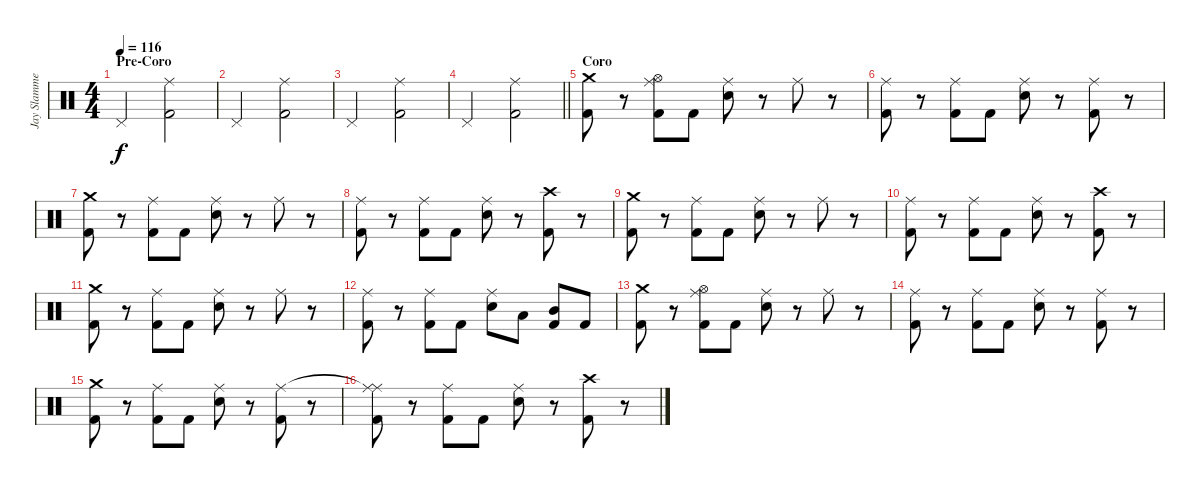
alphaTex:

\track ("Jay Slammer " "Jay Slamme") {instrument percussion}
\staff {score}
\articulation defaults
\ts (4 4)
\section ("" "Pre-Coro")
\tempo 116
\clef neutral
\ks c "Pedal Hi-Hat (hit)".2{dy f}
("Ride (middle)" "Kick (hit) 2").2 |
"Pedal Hi-Hat (hit)".2 ("Ride (middle)" "Kick (hit) 2").2 |
"Pedal Hi-Hat (hit)".2 ("Ride (middle)" "Kick (hit) 2").2 |
\barLineRight lightlight "Pedal Hi-Hat (hit)".2
("Ride (middle)" "Kick (hit) 2").2 |
\section ("" "Coro")
("Crash medium (hit)" "Kick (hit) 2").8 r.8 ("Hi-Hat (open)" "Ride (middle)" "Kick (hit) 2").8 "Kick (hit) 2".8 ("Ride (middle)" "Snare (hit) 2").8 r.8 "Ride (middle)".8 r.8 |
("Ride (middle)" "Kick (hit) 2").8 r.8 ("Ride (middle)" "Kick (hit) 2").8 "Kick (hit) 2".8 ("Ride (middle)" "Snare (hit) 2").8 r.8 ("Ride (middle)" "Kick (hit) 2").8 r.8 |
("Crash medium (hit)" "Kick (hit) 2").8 r.8 ("Ride (middle)" "Kick (hit) 2").8 "Kick (hit) 2".8 ("Ride (middle)" "Snare (hit) 2").8 r.8 "Ride (middle)".8 r.8 |
("Ride (middle)" "Kick (hit) 2").8 r.8 ("Ride (middle)" "Kick (hit) 2").8 "Kick (hit) 2".8 ("Ride (middle)" "Snare (hit) 2").8 r.8 ("Crash high (hit)" "Kick (hit) 2").8 r.8 |
("Crash medium (hit)" "Kick (hit) 2").8 r.8 ("Ride (middle)" "Kick (hit) 2").8 "Kick (hit) 2".8 ("Ride (middle)" "Snare (hit) 2").8 r.8 "Ride (middle)".8 r.8 |
("Ride (middle)" "Kick (hit) 2").8 r.8 ("Ride (middle)" "Kick (hit) 2").8 "Kick (hit) 2".8 ("Ride (middle)" "Snare (hit) 2").8 r.8 ("Crash high (hit)" "Kick (hit) 2").8 r.8 |
("Crash medium (hit)" "Kick (hit) 2").8 r.8 ("Ride (middle)" "Kick (hit) 2").8 "Kick (hit) 2".8 ("Ride (middle)" "Snare (hit) 2").8 r.8 "Ride (middle)".8 r.8 |
("Ride (middle)" "Kick (hit) 2").8 r.8 ("Ride (middle)" "Kick (hit) 2").8 "Kick (hit) 2".8 ("Ride (middle)" "Snare (hit) 2").8 "Low Tom (hit)".8 ("Mid Tom (hit)" "Kick (hit) 2").8 "Kick (hit) 2".8 |
("Crash medium (hit)" "Kick (hit) 2").8 r.8 ("Hi-Hat (open)" "Ride (middle)" "Kick (hit) 2").8 "Kick (hit) 2".8 ("Ride (middle)" "Snare (hit) 2").8 r.8 "Ride (middle)".8 r.8 |
("Ride (middle)" "Kick (hit) 2").8 r.8 ("Ride (middle)" "Kick (hit) 2").8 "Kick (hit) 2".8 ("Ride (middle)" "Snare (hit) 2").8 r.8 ("Ride (middle)" "Kick (hit) 2").8 r.8 |
("Crash medium (hit)" "Kick (hit) 2").8 r.8 ("Ride (middle)" "Kick (hit) 2").8 "Kick (hit) 2".8 ("Ride (middle)" "Snare (hit) 2").8 r.8 ("Ride (middle)" "Kick (hit) 2").8 r.8 |
("Ride (middle)"{t} "Ride (middle)" "Kick (hit) 2").8 r.8 ("Ride (middle)" "Kick (hit) 2").8 "Kick (hit) 2".8 ("Ride (middle)" "Snare (hit) 2").8 r.8 ("Crash high (hit)" "Kick (hit) 2").8 r.8
